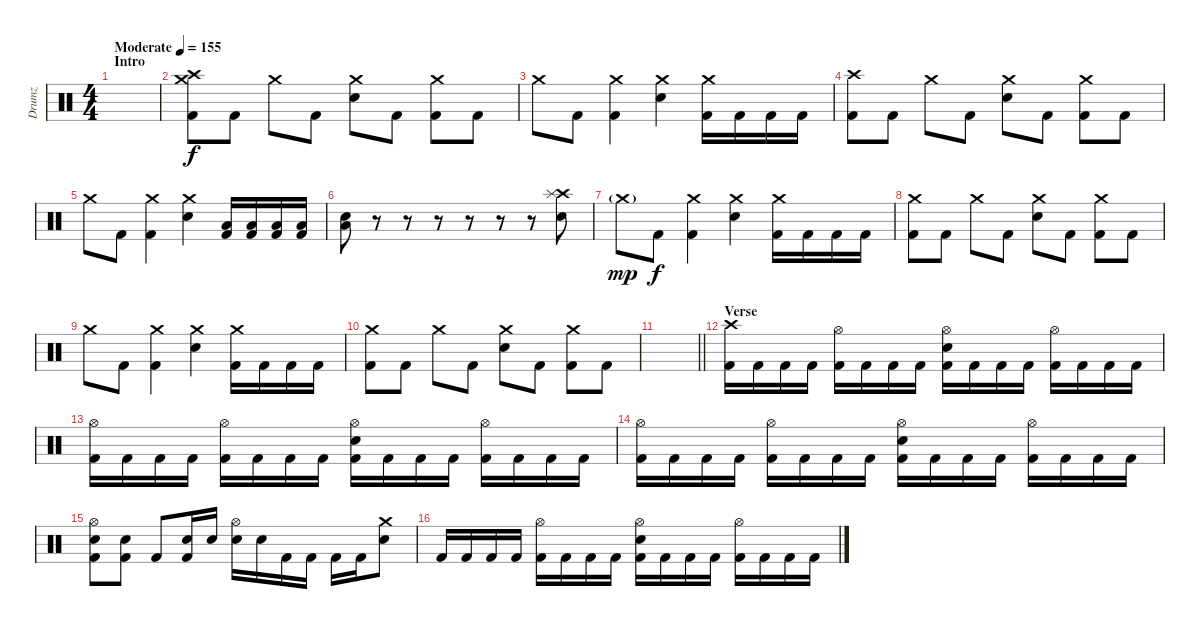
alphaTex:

\track ("Drumz" "Drumz") {instrument percussion}
\staff {score}
\articulation defaults
\ts (4 4)
\section ("" "Intro")
\tempo (155 "Moderate")
\clef neutral
\ks c
|
("Crash medium (hit)" "Kick (hit) 2" "Crash high (hit)").8 "Kick (hit) 2".8 "Crash medium (hit)".8 "Kick (hit) 2".8 ("Crash medium (hit)" "Electric Snare (hit)").8 "Kick (hit) 2".8 ("Kick (hit) 2" "Crash medium (hit)").8 "Kick (hit) 2".8 |
"Crash medium (hit)".8 "Kick (hit) 2".8 ("Kick (hit) 2" "Crash medium (hit)").4 ("Crash medium (hit)" "Electric Snare (hit)").4 ("Crash medium (hit)" "Kick (hit) 2").16 "Kick (hit) 2".16 "Kick (hit) 2".16 "Kick (hit) 2".16 |
("Crash high (hit)" "Kick (hit) 2").8 "Kick (hit) 2".8 "Crash medium (hit)".8 "Kick (hit) 2".8 ("Crash medium (hit)" "Electric Snare (hit)").8 "Kick (hit) 2".8 ("Kick (hit) 2" "Crash medium (hit)").8 "Kick (hit) 2".8 |
"Crash medium (hit)".8 "Kick (hit) 2".8 ("Kick (hit) 2" "Crash medium (hit)").4 ("Crash medium (hit)" "Electric Snare (hit)").4 ("Kick (hit) 2" "Low Floor Tom (hit)").16 ("Kick (hit) 2" "Low Floor Tom (hit)").16 ("Kick (hit) 2" "Low Floor Tom (hit)").16 ("Kick (hit) 2" "Low Floor Tom (hit)").16 |
("Low Floor Tom (hit)" "Electric Snare (hit)").8 r.8 r.8 r.8 r.8 r.8 r.8 ("Crash high (hit)" "Splash (hit)" "Electric Snare (hit)").8 |
"Crash medium (hit)"{g}.8{dy mp} "Kick (hit) 2".8{dy f} ("Kick (hit) 2" "Crash medium (hit)").4 ("Electric Snare (hit)" "Crash medium (hit)").4 ("Kick (hit) 2" "Crash medium (hit)").16 "Kick (hit) 2".16 "Kick (hit) 2".16 "Kick (hit) 2".16 |
("Kick (hit) 2" "Crash medium (hit)").8 "Kick (hit) 2".8 "Crash medium (hit)".8 "Kick (hit) 2".8 ("Crash medium (hit)" "Electric Snare (hit)").8 "Kick (hit) 2".8 ("Kick (hit) 2" "Crash medium (hit)").8 "Kick (hit) 2".8 |
"Crash medium (hit)".8 "Kick (hit) 2".8 ("Kick (hit) 2" "Crash medium (hit)").4 ("Crash medium (hit)" "Electric Snare (hit)").4 ("Crash medium (hit)" "Kick (hit) 2").16 "Kick (hit) 2".16 "Kick (hit) 2".16 "Kick (hit) 2".16 |
("Kick (hit) 2" "Crash medium (hit)").8 "Kick (hit) 2".8 "Crash medium (hit)".8 "Kick (hit) 2".8 ("Crash medium (hit)" "Electric Snare (hit)").8 "Kick (hit) 2".8 ("Kick (hit) 2" "Crash medium (hit)").8 "Kick (hit) 2".8 |
\barLineRight lightlight
|
\section ("" "Verse")
("Kick (hit) 2" "Crash high (hit)").16 "Kick (hit) 2".16 "Kick (hit) 2".16 "Kick (hit) 2".16 ("Kick (hit) 2" "Hi-Hat (open)").16 "Kick (hit) 2".16 "Kick (hit) 2".16 "Kick (hit) 2".16 ("Kick (hit) 2" "Hi-Hat (open)" "Electric Snare (hit)").16 "Kick (hit) 2".16 "Kick (hit) 2".16 "Kick (hit) 2".16 ("Kick (hit) 2" "Hi-Hat (open)").16 "Kick (hit) 2".16 "Kick (hit) 2".16 "Kick (hit) 2".16 |
("Kick (hit) 2" "Hi-Hat (open)").16 "Kick (hit) 2".16 "Kick (hit) 2".16 "Kick (hit) 2".16 ("Kick (hit) 2" "Hi-Hat (open)").16 "Kick (hit) 2".16 "Kick (hit) 2".16 "Kick (hit) 2".16 ("Kick (hit) 2" "Hi-Hat (open)" "Electric Snare (hit)").16 "Kick (hit) 2".16 "Kick (hit) 2".16 "Kick (hit) 2".16 ("Kick (hit) 2" "Hi-Hat (open)").16 "Kick (hit) 2".16 "Kick (hit) 2".16 "Kick (hit) 2".16 |
("Kick (hit) 2" "Hi-Hat (open)").16 "Kick (hit) 2".16 "Kick (hit) 2".16 "Kick (hit) 2".16 ("Kick (hit) 2" "Hi-Hat (open)").16 "Kick (hit) 2".16 "Kick (hit) 2".16 "Kick (hit) 2".16 ("Kick (hit) 2" "Hi-Hat (open)" "Electric Snare (hit)").16 "Kick (hit) 2".16 "Kick (hit) 2".16 "Kick (hit) 2".16 ("Kick (hit) 2" "Hi-Hat (open)").16 "Kick (hit) 2".16 "Kick (hit) 2".16 "Kick (hit) 2".16 |
("Electric Snare (hit)" "Kick (hit) 2" "Hi-Hat (open)").8 ("Kick (hit) 2" "Electric Snare (hit)").8 "Kick (hit) 2".8 ("Kick (hit) 2" "Electric Snare (hit)").16 "Electric Snare (hit)".16 ("Electric Snare (hit)" "Hi-Hat (open)").16 "Electric Snare (hit)".16 "Kick (hit) 2".16 "Kick (hit) 2".16 "Kick (hit) 2".16 "Kick (hit) 2".16 ("Crash medium (hit)" "Electric Snare (hit)").8 |
"Kick (hit) 2".16 "Kick (hit) 2".16 "Kick (hit) 2".16 "Kick (hit) 2".16 ("Kick (hit) 2" "Hi-Hat (open)").16 "Kick (hit) 2".16 "Kick (hit) 2".16 "Kick (hit) 2".16 ("Kick (hit) 2" "Hi-Hat (open)" "Electric Snare (hit)").16 "Kick (hit) 2".16 "Kick (hit) 2".16 "Kick (hit) 2".16 ("Kick (hit) 2" "Hi-Hat (open)").16 "Kick (hit) 2".16 "Kick (hit) 2".16 "Kick (hit) 2".16
